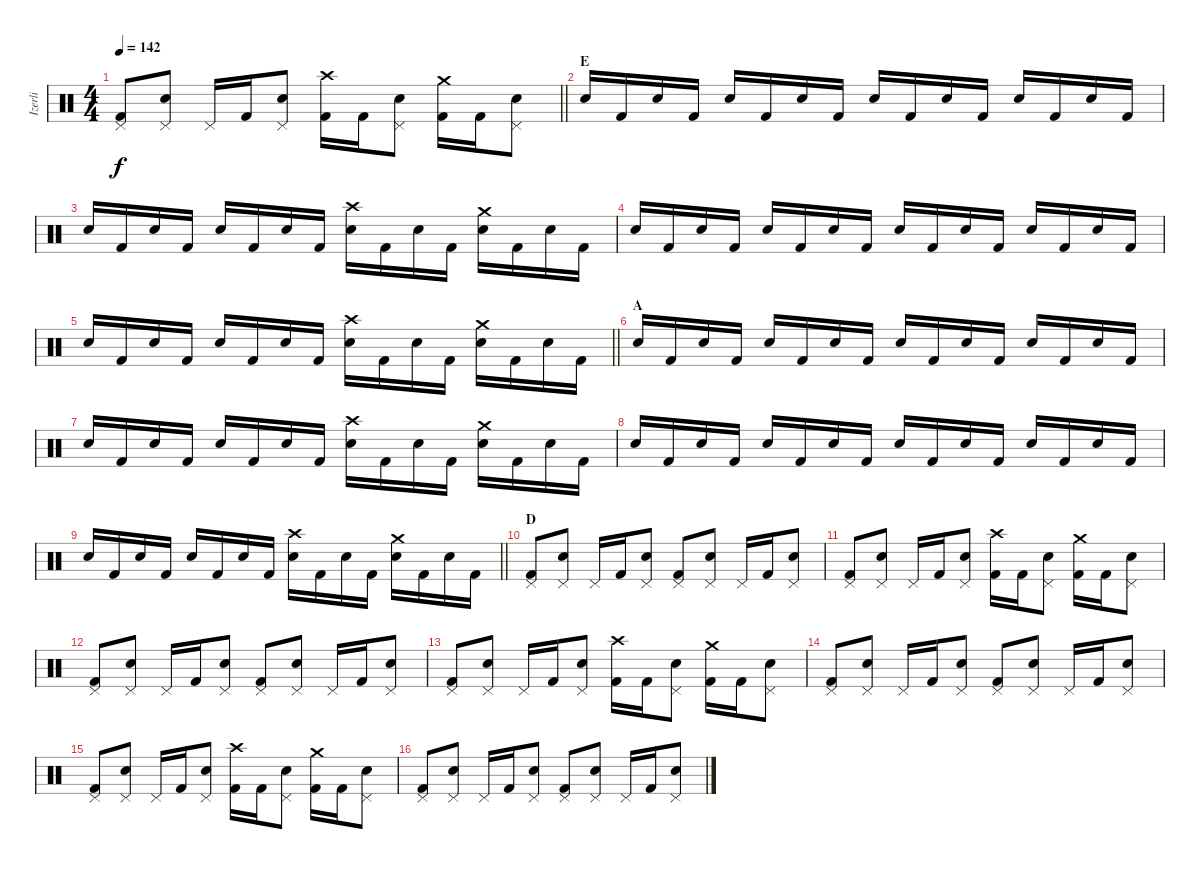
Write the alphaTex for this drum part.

\track ("Izerli" "Izerli") {instrument percussion}
\staff {score}
\articulation defaults
\ts (4 4)
\tempo 142
\clef neutral
\barLineRight lightlight
\ks c
("Pedal Hi-Hat (hit)" "Kick (hit) 2").8{dy f} ("Pedal Hi-Hat (hit)" "Electric Snare (hit)").8 "Pedal Hi-Hat (hit)".16 "Kick (hit) 2".16 ("Pedal Hi-Hat (hit)" "Electric Snare (hit)").8 ("Crash high (hit)" "Kick (hit) 2").16 "Kick (hit) 2".16 ("Pedal Hi-Hat (hit)" "Electric Snare (hit)").8 ("Crash medium (hit)" "Kick (hit) 2").16 "Kick (hit) 2".16 ("Pedal Hi-Hat (hit)" "Electric Snare (hit)").8 |
\section ("" "E")
"Electric Snare (hit)".16 "Kick (hit) 2".16 "Electric Snare (hit)".16 "Kick (hit) 2".16 "Electric Snare (hit)".16 "Kick (hit) 2".16 "Electric Snare (hit)".16 "Kick (hit) 2".16 "Electric Snare (hit)".16 "Kick (hit) 2".16 "Electric Snare (hit)".16 "Kick (hit) 2".16 "Electric Snare (hit)".16 "Kick (hit) 2".16 "Electric Snare (hit)".16 "Kick (hit) 2".16 |
"Electric Snare (hit)".16 "Kick (hit) 2".16 "Electric Snare (hit)".16 "Kick (hit) 2".16 "Electric Snare (hit)".16 "Kick (hit) 2".16 "Electric Snare (hit)".16 "Kick (hit) 2".16 ("Crash high (hit)" "Electric Snare (hit)").16 "Kick (hit) 2".16 "Electric Snare (hit)".16 "Kick (hit) 2".16 ("Crash medium (hit)" "Electric Snare (hit)").16 "Kick (hit) 2".16 "Electric Snare (hit)".16 "Kick (hit) 2".16 |
"Electric Snare (hit)".16 "Kick (hit) 2".16 "Electric Snare (hit)".16 "Kick (hit) 2".16 "Electric Snare (hit)".16 "Kick (hit) 2".16 "Electric Snare (hit)".16 "Kick (hit) 2".16 "Electric Snare (hit)".16 "Kick (hit) 2".16 "Electric Snare (hit)".16 "Kick (hit) 2".16 "Electric Snare (hit)".16 "Kick (hit) 2".16 "Electric Snare (hit)".16 "Kick (hit) 2".16 |
\barLineRight lightlight "Electric Snare (hit)".16 "Kick (hit) 2".16 "Electric Snare (hit)".16 "Kick (hit) 2".16 "Electric Snare (hit)".16 "Kick (hit) 2".16 "Electric Snare (hit)".16 "Kick (hit) 2".16
("Crash high (hit)" "Electric Snare (hit)").16 "Kick (hit) 2".16 "Electric Snare (hit)".16 "Kick (hit) 2".16 ("Crash medium (hit)" "Electric Snare (hit)").16 "Kick (hit) 2".16 "Electric Snare (hit)".16 "Kick (hit) 2".16 |
\section ("" "A")
"Electric Snare (hit)".16 "Kick (hit) 2".16 "Electric Snare (hit)".16 "Kick (hit) 2".16 "Electric Snare (hit)".16 "Kick (hit) 2".16 "Electric Snare (hit)".16 "Kick (hit) 2".16 "Electric Snare (hit)".16 "Kick (hit) 2".16 "Electric Snare (hit)".16 "Kick (hit) 2".16 "Electric Snare (hit)".16 "Kick (hit) 2".16 "Electric Snare (hit)".16 "Kick (hit) 2".16 |
"Electric Snare (hit)".16 "Kick (hit) 2".16 "Electric Snare (hit)".16 "Kick (hit) 2".16 "Electric Snare (hit)".16 "Kick (hit) 2".16 "Electric Snare (hit)".16 "Kick (hit) 2".16 ("Crash high (hit)" "Electric Snare (hit)").16 "Kick (hit) 2".16 "Electric Snare (hit)".16 "Kick (hit) 2".16 ("Crash medium (hit)" "Electric Snare (hit)").16 "Kick (hit) 2".16 "Electric Snare (hit)".16 "Kick (hit) 2".16 |
"Electric Snare (hit)".16 "Kick (hit) 2".16 "Electric Snare (hit)".16 "Kick (hit) 2".16 "Electric Snare (hit)".16 "Kick (hit) 2".16 "Electric Snare (hit)".16 "Kick (hit) 2".16 "Electric Snare (hit)".16 "Kick (hit) 2".16 "Electric Snare (hit)".16 "Kick (hit) 2".16 "Electric Snare (hit)".16 "Kick (hit) 2".16 "Electric Snare (hit)".16 "Kick (hit) 2".16 |
\barLineRight lightlight "Electric Snare (hit)".16 "Kick (hit) 2".16 "Electric Snare (hit)".16 "Kick (hit) 2".16 "Electric Snare (hit)".16 "Kick (hit) 2".16 "Electric Snare (hit)".16 "Kick (hit) 2".16
("Crash high (hit)" "Electric Snare (hit)").16 "Kick (hit) 2".16 "Electric Snare (hit)".16 "Kick (hit) 2".16 ("Crash medium (hit)" "Electric Snare (hit)").16 "Kick (hit) 2".16 "Electric Snare (hit)".16 "Kick (hit) 2".16 |
\section ("" "D")
("Pedal Hi-Hat (hit)" "Kick (hit) 2").8 ("Pedal Hi-Hat (hit)" "Electric Snare (hit)").8 "Pedal Hi-Hat (hit)".16 "Kick (hit) 2".16 ("Pedal Hi-Hat (hit)" "Electric Snare (hit)").8 ("Pedal Hi-Hat (hit)" "Kick (hit) 2").8 ("Pedal Hi-Hat (hit)" "Electric Snare (hit)").8 "Pedal Hi-Hat (hit)".16 "Kick (hit) 2".16 ("Pedal Hi-Hat (hit)" "Electric Snare (hit)").8 |
("Pedal Hi-Hat (hit)" "Kick (hit) 2").8 ("Pedal Hi-Hat (hit)" "Electric Snare (hit)").8 "Pedal Hi-Hat (hit)".16 "Kick (hit) 2".16 ("Pedal Hi-Hat (hit)" "Electric Snare (hit)").8 ("Crash high (hit)" "Kick (hit) 2").16 "Kick (hit) 2".16 ("Pedal Hi-Hat (hit)" "Electric Snare (hit)").8 ("Crash medium (hit)" "Kick (hit) 2").16 "Kick (hit) 2".16 ("Pedal Hi-Hat (hit)" "Electric Snare (hit)").8 |
("Pedal Hi-Hat (hit)" "Kick (hit) 2").8 ("Pedal Hi-Hat (hit)" "Electric Snare (hit)").8 "Pedal Hi-Hat (hit)".16 "Kick (hit) 2".16 ("Pedal Hi-Hat (hit)" "Electric Snare (hit)").8 ("Pedal Hi-Hat (hit)" "Kick (hit) 2").8 ("Pedal Hi-Hat (hit)" "Electric Snare (hit)").8 "Pedal Hi-Hat (hit)".16 "Kick (hit) 2".16 ("Pedal Hi-Hat (hit)" "Electric Snare (hit)").8 |
("Pedal Hi-Hat (hit)" "Kick (hit) 2").8 ("Pedal Hi-Hat (hit)" "Electric Snare (hit)").8 "Pedal Hi-Hat (hit)".16 "Kick (hit) 2".16 ("Pedal Hi-Hat (hit)" "Electric Snare (hit)").8 ("Crash high (hit)" "Kick (hit) 2").16 "Kick (hit) 2".16 ("Pedal Hi-Hat (hit)" "Electric Snare (hit)").8 ("Crash medium (hit)" "Kick (hit) 2").16 "Kick (hit) 2".16 ("Pedal Hi-Hat (hit)" "Electric Snare (hit)").8 |
("Pedal Hi-Hat (hit)" "Kick (hit) 2").8 ("Pedal Hi-Hat (hit)" "Electric Snare (hit)").8 "Pedal Hi-Hat (hit)".16 "Kick (hit) 2".16 ("Pedal Hi-Hat (hit)" "Electric Snare (hit)").8 ("Pedal Hi-Hat (hit)" "Kick (hit) 2").8 ("Pedal Hi-Hat (hit)" "Electric Snare (hit)").8 "Pedal Hi-Hat (hit)".16 "Kick (hit) 2".16 ("Pedal Hi-Hat (hit)" "Electric Snare (hit)").8 |
("Pedal Hi-Hat (hit)" "Kick (hit) 2").8 ("Pedal Hi-Hat (hit)" "Electric Snare (hit)").8 "Pedal Hi-Hat (hit)".16 "Kick (hit) 2".16 ("Pedal Hi-Hat (hit)" "Electric Snare (hit)").8 ("Crash high (hit)" "Kick (hit) 2").16 "Kick (hit) 2".16 ("Pedal Hi-Hat (hit)" "Electric Snare (hit)").8 ("Crash medium (hit)" "Kick (hit) 2").16 "Kick (hit) 2".16 ("Pedal Hi-Hat (hit)" "Electric Snare (hit)").8 |
("Pedal Hi-Hat (hit)" "Kick (hit) 2").8 ("Pedal Hi-Hat (hit)" "Electric Snare (hit)").8 "Pedal Hi-Hat (hit)".16 "Kick (hit) 2".16 ("Pedal Hi-Hat (hit)" "Electric Snare (hit)").8 ("Pedal Hi-Hat (hit)" "Kick (hit) 2").8 ("Pedal Hi-Hat (hit)" "Electric Snare (hit)").8 "Pedal Hi-Hat (hit)".16 "Kick (hit) 2".16 ("Pedal Hi-Hat (hit)" "Electric Snare (hit)").8
